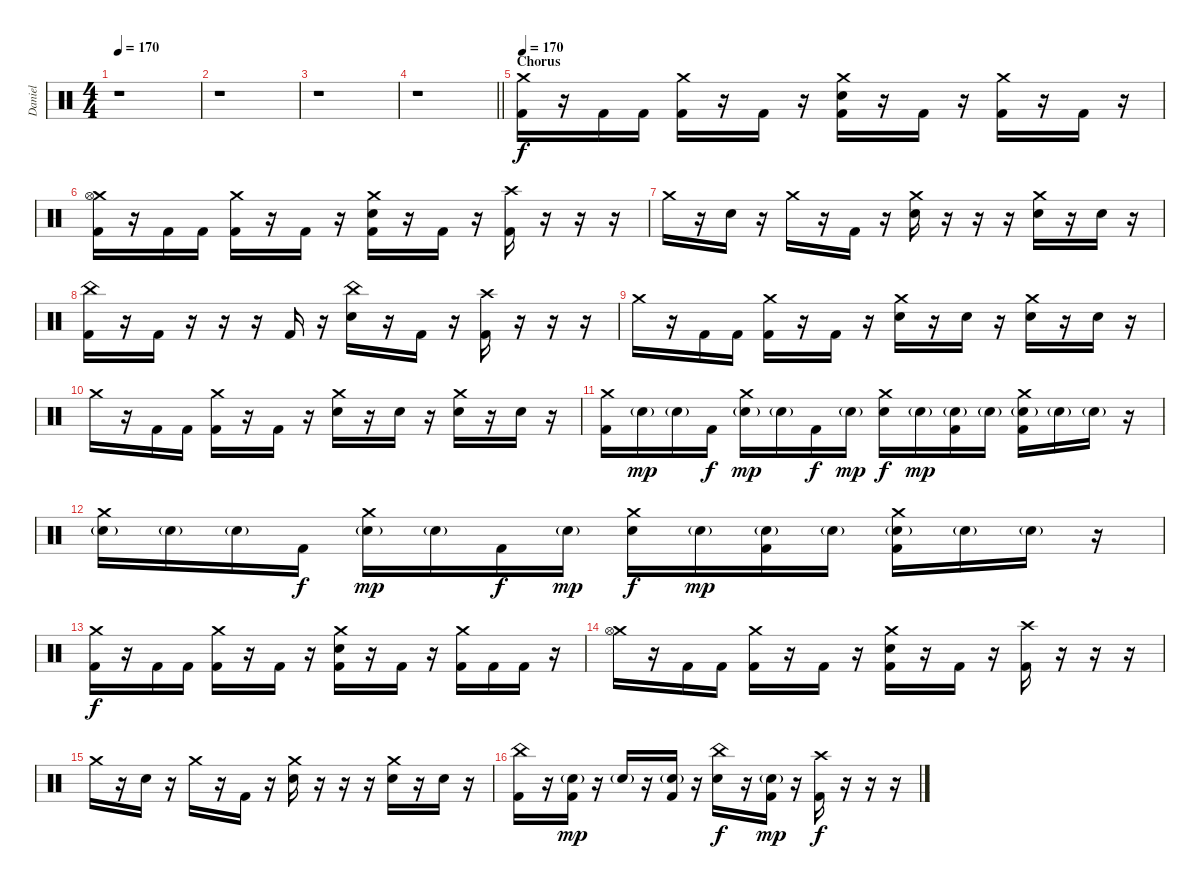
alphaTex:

\track ("Daniel" "Daniel") {instrument percussion}
\staff {score}
\articulation defaults
\ts (4 4)
\tempo 170
\clef neutral
\ks c
r.1{dy f} |
r.1 |
r.1 |
\barLineRight lightlight
r.1 |
\section ("" "Chorus")
\tempo 170
("Crash medium (hit)" "Kick (hit) 2").16 r.16 "Kick (hit) 2".16 "Kick (hit) 2".16 ("Crash medium (hit)" "Kick (hit) 2").16 r.16 "Kick (hit) 2".16 r.16 ("Crash medium (hit)" "Snare (hit) 2" "Kick (hit) 2").16 r.16 "Kick (hit) 2".16 r.16 ("Crash medium (hit)" "Kick (hit) 2").16 r.16 "Kick (hit) 2".16 r.16 |
("Crash medium (hit)" "Hi-Hat (open)" "Kick (hit) 2").16 r.16 "Kick (hit) 2".16 "Kick (hit) 2".16 ("Crash medium (hit)" "Kick (hit) 2").16 r.16 "Kick (hit) 2".16 r.16 ("Crash medium (hit)" "Snare (hit) 2" "Kick (hit) 2").16 r.16 "Kick (hit) 2".16 r.16 ("Crash high (hit)" "Kick (hit) 2").16 r.16 r.16 r.16 |
"Crash medium (hit)".16 r.16 "Snare (hit) 2".16 r.16 "Crash medium (hit)".16 r.16 "Kick (hit) 2".16 r.16 ("Crash medium (hit)" "Snare (hit) 2").16 r.16 r.16 r.16 ("Crash medium (hit)" "Snare (hit) 2").16 r.16 "Snare (hit) 2".16 r.16 |
("China (hit)" "Kick (hit) 2").16 r.16 "Kick (hit) 2".16 r.16 r.16 r.16 "Kick (hit) 2".16 r.16 ("China (hit)" "Snare (hit) 2").16 r.16 "Kick (hit) 2".16 r.16 ("Crash high (hit)" "Kick (hit) 2").16 r.16 r.16 r.16 |
"Crash medium (hit)".16 r.16 "Kick (hit) 2".16 "Kick (hit) 2".16 ("Crash medium (hit)" "Kick (hit) 2").16 r.16 "Kick (hit) 2".16 r.16 ("Crash medium (hit)" "Snare (hit) 2").16 r.16 "Snare (hit) 2".16 r.16 ("Crash medium (hit)" "Snare (hit) 2").16 r.16 "Snare (hit) 2".16 r.16 |
"Crash medium (hit)".16 r.16 "Kick (hit) 2".16 "Kick (hit) 2".16 ("Crash medium (hit)" "Kick (hit) 2").16 r.16 "Kick (hit) 2".16 r.16 ("Crash medium (hit)" "Snare (hit) 2").16 r.16 "Snare (hit) 2".16 r.16 ("Crash medium (hit)" "Snare (hit) 2").16 r.16 "Snare (hit) 2".16 r.16 |
("Crash medium (hit)" "Kick (hit) 2").16 "Snare (hit) 2"{g}.16{dy mp} "Snare (hit) 2"{g}.16 "Kick (hit) 2".16{dy f} ("Crash medium (hit)" "Snare (hit) 2"{g}).16{dy mp} "Snare (hit) 2"{g}.16 "Kick (hit) 2".16{dy f} "Snare (hit) 2"{g}.16{dy mp} ("Crash medium (hit)" "Snare (hit) 2").16{dy f} "Snare (hit) 2"{g}.16{dy mp} ("Snare (hit) 2"{g} "Kick (hit) 2").16 "Snare (hit) 2"{g}.16 ("Crash medium (hit)" "Snare (hit) 2"{g} "Kick (hit) 2").16 "Snare (hit) 2"{g}.16 "Snare (hit) 2"{g}.16 r.16 |
("Crash medium (hit)" "Snare (hit) 2"{g}).16 "Snare (hit) 2"{g}.16 "Snare (hit) 2"{g}.16 "Kick (hit) 2".16{dy f} ("Crash medium (hit)" "Snare (hit) 2"{g}).16{dy mp} "Snare (hit) 2"{g}.16 "Kick (hit) 2".16{dy f} "Snare (hit) 2"{g}.16{dy mp} ("Crash medium (hit)" "Snare (hit) 2").16{dy f} "Snare (hit) 2"{g}.16{dy mp} ("Snare (hit) 2"{g} "Kick (hit) 2").16 "Snare (hit) 2"{g}.16 ("Crash medium (hit)" "Snare (hit) 2"{g} "Kick (hit) 2").16 "Snare (hit) 2"{g}.16 "Snare (hit) 2"{g}.16 r.16 |
("Crash medium (hit)" "Kick (hit) 2").16{dy f} r.16 "Kick (hit) 2".16 "Kick (hit) 2".16 ("Crash medium (hit)" "Kick (hit) 2").16 r.16 "Kick (hit) 2".16 r.16 ("Crash medium (hit)" "Snare (hit) 2" "Kick (hit) 2").16 r.16 "Kick (hit) 2".16 r.16 ("Crash medium (hit)" "Kick (hit) 2").16 "Kick (hit) 2".16 "Kick (hit) 2".16 r.16 |
("Crash medium (hit)" "Hi-Hat (open)").16 r.16 "Kick (hit) 2".16 "Kick (hit) 2".16 ("Crash medium (hit)" "Kick (hit) 2").16 r.16 "Kick (hit) 2".16 r.16 ("Crash medium (hit)" "Snare (hit) 2" "Kick (hit) 2").16 r.16 "Kick (hit) 2".16 r.16 ("Crash high (hit)" "Kick (hit) 2").16 r.16 r.16 r.16 |
"Crash medium (hit)".16 r.16 "Snare (hit) 2".16 r.16 "Crash medium (hit)".16 r.16 "Kick (hit) 2".16 r.16 ("Crash medium (hit)" "Snare (hit) 2").16 r.16 r.16 r.16 ("Crash medium (hit)" "Snare (hit) 2").16 r.16 "Snare (hit) 2".16 r.16 |
("China (hit)" "Kick (hit) 2").16 r.16 ("Snare (hit) 2"{g} "Kick (hit) 2").16{dy mp} r.16 "Snare (hit) 2"{g}.16 r.16 ("Snare (hit) 2"{g} "Kick (hit) 2").16 r.16 ("China (hit)" "Snare (hit) 2").16{dy f} r.16 ("Snare (hit) 2"{g} "Kick (hit) 2").16{dy mp} r.16 ("Crash high (hit)" "Kick (hit) 2").16{dy f} r.16 r.16 r.16
